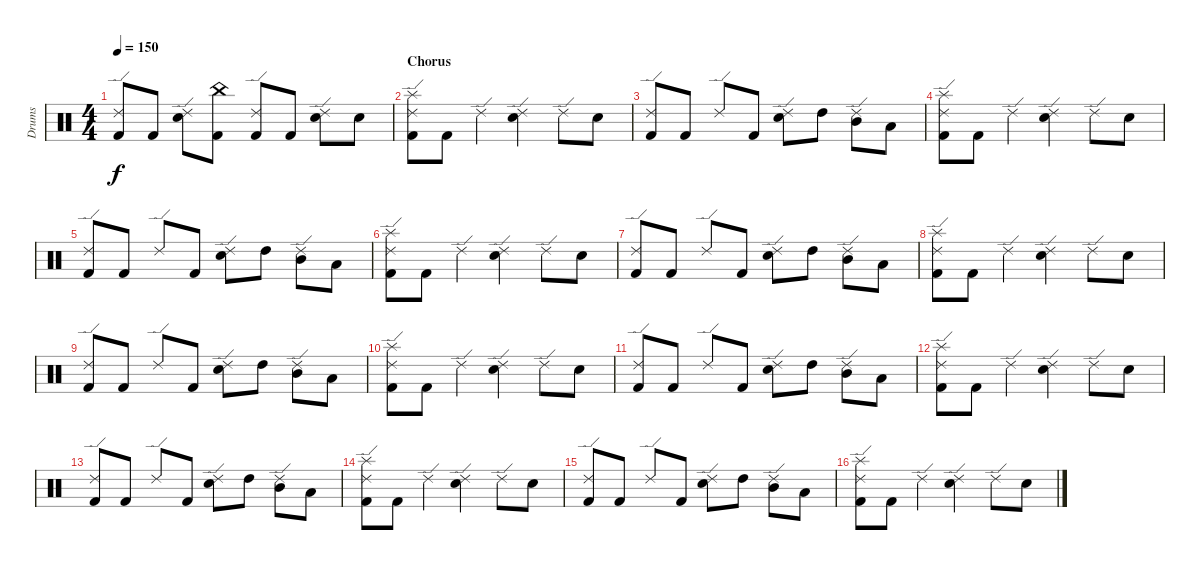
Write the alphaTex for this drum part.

\track ("Drums" "Drums") {instrument percussion}
\staff {score}
\articulation defaults
\ts (4 4)
\tempo 150
\clef neutral
\ks c
("Ride (edge) 2" "Kick (hit) 2").8{dy f} "Kick (hit) 2".8 ("Ride (edge) 2" "Electric Snare (hit)").8 ("China (hit)" "Kick (hit) 2").8 ("Ride (edge) 2" "Kick (hit) 2").8 "Kick (hit) 2".8 ("Ride (edge) 2" "Electric Snare (hit)").8 "Electric Snare (hit)".8 |
\section ("" "Chorus")
("Splash (hit)" "Ride (edge) 2" "Kick (hit) 2").8 "Kick (hit) 2".8 "Ride (edge) 2".4 ("Ride (edge) 2" "Electric Snare (hit)").4 "Ride (edge) 2".8 "Electric Snare (hit)".8 |
("Ride (edge) 2" "Kick (hit) 2").8 "Kick (hit) 2".8 "Ride (edge) 2".8 "Kick (hit) 2".8 ("Ride (edge) 2" "Electric Snare (hit)").8 "High Tom (hit)".8 ("Ride (edge) 2" "Mid Tom (hit)").8 "Low Tom (hit)".8 |
("Splash (hit)" "Ride (edge) 2" "Kick (hit) 2").8 "Kick (hit) 2".8 "Ride (edge) 2".4 ("Ride (edge) 2" "Electric Snare (hit)").4 "Ride (edge) 2".8 "Electric Snare (hit)".8 |
("Ride (edge) 2" "Kick (hit) 2").8 "Kick (hit) 2".8 "Ride (edge) 2".8 "Kick (hit) 2".8 ("Ride (edge) 2" "Electric Snare (hit)").8 "High Tom (hit)".8 ("Ride (edge) 2" "Mid Tom (hit)").8 "Low Tom (hit)".8 |
("Splash (hit)" "Ride (edge) 2" "Kick (hit) 2").8 "Kick (hit) 2".8 "Ride (edge) 2".4 ("Ride (edge) 2" "Electric Snare (hit)").4 "Ride (edge) 2".8 "Electric Snare (hit)".8 |
("Ride (edge) 2" "Kick (hit) 2").8 "Kick (hit) 2".8 "Ride (edge) 2".8 "Kick (hit) 2".8 ("Ride (edge) 2" "Electric Snare (hit)").8 "High Tom (hit)".8 ("Ride (edge) 2" "Mid Tom (hit)").8 "Low Tom (hit)".8 |
("Splash (hit)" "Ride (edge) 2" "Kick (hit) 2").8 "Kick (hit) 2".8 "Ride (edge) 2".4 ("Ride (edge) 2" "Electric Snare (hit)").4 "Ride (edge) 2".8 "Electric Snare (hit)".8 |
("Ride (edge) 2" "Kick (hit) 2").8 "Kick (hit) 2".8 "Ride (edge) 2".8 "Kick (hit) 2".8 ("Ride (edge) 2" "Electric Snare (hit)").8 "High Tom (hit)".8 ("Ride (edge) 2" "Mid Tom (hit)").8 "Low Tom (hit)".8 |
("Splash (hit)" "Ride (edge) 2" "Kick (hit) 2").8 "Kick (hit) 2".8 "Ride (edge) 2".4 ("Ride (edge) 2" "Electric Snare (hit)").4 "Ride (edge) 2".8 "Electric Snare (hit)".8 |
("Ride (edge) 2" "Kick (hit) 2").8 "Kick (hit) 2".8 "Ride (edge) 2".8 "Kick (hit) 2".8 ("Ride (edge) 2" "Electric Snare (hit)").8 "High Tom (hit)".8 ("Ride (edge) 2" "Mid Tom (hit)").8 "Low Tom (hit)".8 |
("Splash (hit)" "Ride (edge) 2" "Kick (hit) 2").8 "Kick (hit) 2".8 "Ride (edge) 2".4 ("Ride (edge) 2" "Electric Snare (hit)").4 "Ride (edge) 2".8 "Electric Snare (hit)".8 |
("Ride (edge) 2" "Kick (hit) 2").8 "Kick (hit) 2".8 "Ride (edge) 2".8 "Kick (hit) 2".8 ("Ride (edge) 2" "Electric Snare (hit)").8 "High Tom (hit)".8 ("Ride (edge) 2" "Mid Tom (hit)").8 "Low Tom (hit)".8 |
("Splash (hit)" "Ride (edge) 2" "Kick (hit) 2").8 "Kick (hit) 2".8 "Ride (edge) 2".4 ("Ride (edge) 2" "Electric Snare (hit)").4 "Ride (edge) 2".8 "Electric Snare (hit)".8 |
("Ride (edge) 2" "Kick (hit) 2").8 "Kick (hit) 2".8 "Ride (edge) 2".8 "Kick (hit) 2".8 ("Ride (edge) 2" "Electric Snare (hit)").8 "High Tom (hit)".8 ("Ride (edge) 2" "Mid Tom (hit)").8 "Low Tom (hit)".8 |
("Splash (hit)" "Ride (edge) 2" "Kick (hit) 2").8 "Kick (hit) 2".8 "Ride (edge) 2".4 ("Ride (edge) 2" "Electric Snare (hit)").4 "Ride (edge) 2".8 "Electric Snare (hit)".8
